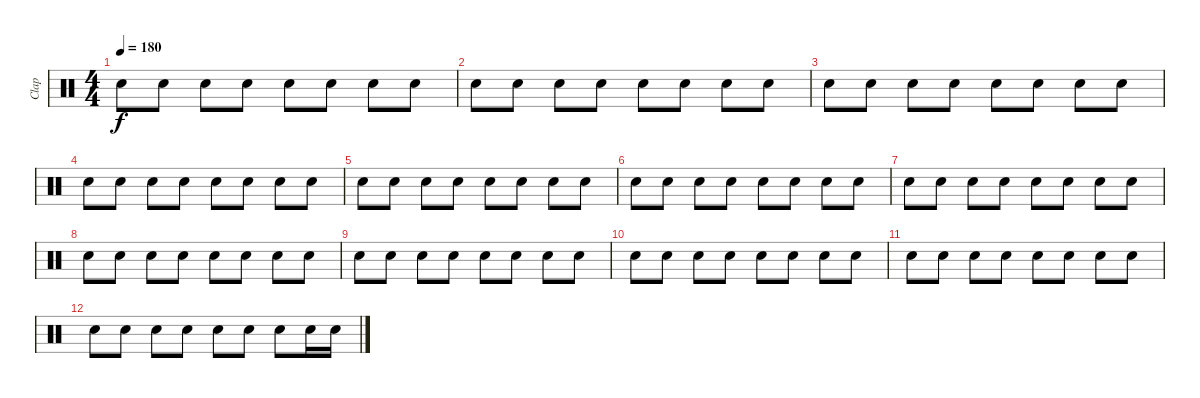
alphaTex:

\track ("Clap" "Clap") {instrument percussion}
\staff {score}
\articulation defaults
\ts (4 4)
\tempo 180
\clef neutral
\ks c "Hand Clap (hit)".8{dy f} "Hand Clap (hit)".8 "Hand Clap (hit)".8 "Hand Clap (hit)".8 "Hand Clap (hit)".8 "Hand Clap (hit)".8 "Hand Clap (hit)".8 "Hand Clap (hit)".8
|
"Hand Clap (hit)".8 "Hand Clap (hit)".8 "Hand Clap (hit)".8 "Hand Clap (hit)".8 "Hand Clap (hit)".8 "Hand Clap (hit)".8 "Hand Clap (hit)".8 "Hand Clap (hit)".8 |
"Hand Clap (hit)".8 "Hand Clap (hit)".8 "Hand Clap (hit)".8 "Hand Clap (hit)".8 "Hand Clap (hit)".8 "Hand Clap (hit)".8 "Hand Clap (hit)".8 "Hand Clap (hit)".8 |
"Hand Clap (hit)".8 "Hand Clap (hit)".8 "Hand Clap (hit)".8 "Hand Clap (hit)".8 "Hand Clap (hit)".8 "Hand Clap (hit)".8 "Hand Clap (hit)".8 "Hand Clap (hit)".8 |
"Hand Clap (hit)".8 "Hand Clap (hit)".8 "Hand Clap (hit)".8 "Hand Clap (hit)".8 "Hand Clap (hit)".8 "Hand Clap (hit)".8 "Hand Clap (hit)".8 "Hand Clap (hit)".8 |
"Hand Clap (hit)".8 "Hand Clap (hit)".8 "Hand Clap (hit)".8 "Hand Clap (hit)".8 "Hand Clap (hit)".8 "Hand Clap (hit)".8 "Hand Clap (hit)".8 "Hand Clap (hit)".8 |
"Hand Clap (hit)".8 "Hand Clap (hit)".8 "Hand Clap (hit)".8 "Hand Clap (hit)".8 "Hand Clap (hit)".8 "Hand Clap (hit)".8 "Hand Clap (hit)".8 "Hand Clap (hit)".8 |
"Hand Clap (hit)".8 "Hand Clap (hit)".8 "Hand Clap (hit)".8 "Hand Clap (hit)".8 "Hand Clap (hit)".8 "Hand Clap (hit)".8 "Hand Clap (hit)".8 "Hand Clap (hit)".8 |
"Hand Clap (hit)".8 "Hand Clap (hit)".8 "Hand Clap (hit)".8 "Hand Clap (hit)".8 "Hand Clap (hit)".8 "Hand Clap (hit)".8 "Hand Clap (hit)".8 "Hand Clap (hit)".8 |
"Hand Clap (hit)".8 "Hand Clap (hit)".8 "Hand Clap (hit)".8 "Hand Clap (hit)".8 "Hand Clap (hit)".8 "Hand Clap (hit)".8 "Hand Clap (hit)".8 "Hand Clap (hit)".8 |
"Hand Clap (hit)".8 "Hand Clap (hit)".8 "Hand Clap (hit)".8 "Hand Clap (hit)".8 "Hand Clap (hit)".8 "Hand Clap (hit)".8 "Hand Clap (hit)".8 "Hand Clap (hit)".8 |
"Hand Clap (hit)".8 "Hand Clap (hit)".8 "Hand Clap (hit)".8 "Hand Clap (hit)".8 "Hand Clap (hit)".8 "Hand Clap (hit)".8 "Hand Clap (hit)".8 "Hand Clap (hit)".16 "Hand Clap (hit)".16
